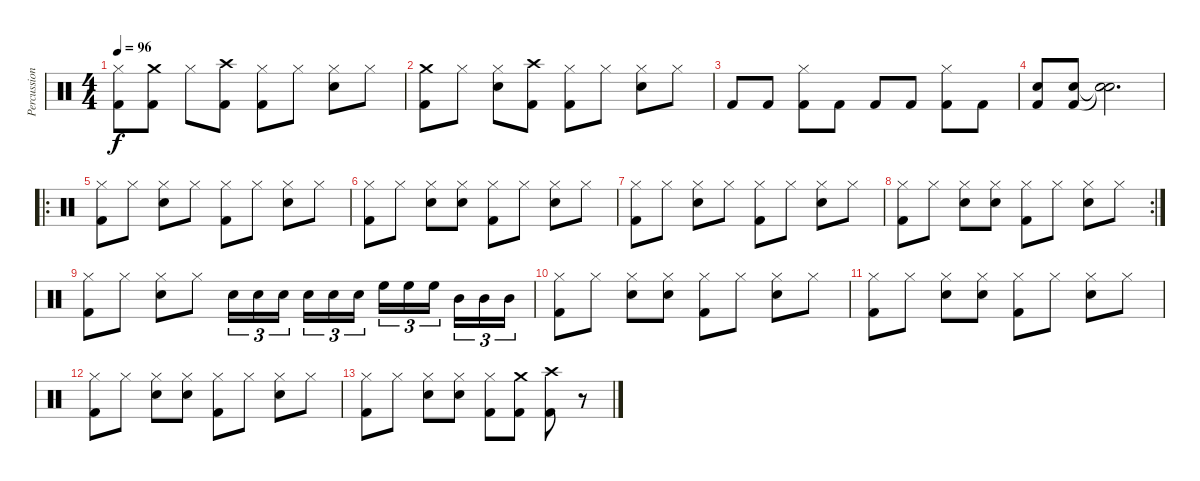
\track ("Percussion" "Percussion") {instrument percussion}
\staff {score}
\articulation defaults
\ts (4 4)
\tempo 96
\clef neutral
\ks c
("Kick (hit) 2" "Hi-Hat (closed)").8{dy f} ("Crash medium (hit)" "Kick (hit) 2").8 "Hi-Hat (closed)".8 ("Crash high (hit)" "Kick (hit) 2").8 ("Hi-Hat (closed)" "Kick (hit) 2").8 "Hi-Hat (closed)".8 ("Hi-Hat (closed)" "Snare (hit) 2").8 "Hi-Hat (closed)".8 |
("Crash medium (hit)" "Kick (hit) 2").8 "Hi-Hat (closed)".8 ("Hi-Hat (closed)" "Snare (hit) 2").8 ("Crash high (hit)" "Kick (hit) 2").8 ("Hi-Hat (closed)" "Kick (hit) 2").8 "Hi-Hat (closed)".8 ("Hi-Hat (closed)" "Snare (hit) 2").8 "Hi-Hat (closed)".8 |
"Kick (hit) 2".8 "Kick (hit) 2".8 ("Hi-Hat (closed)" "Kick (hit) 2").8 "Kick (hit) 2".8 "Kick (hit) 2".8 "Kick (hit) 2".8 ("Hi-Hat (closed)" "Kick (hit) 2").8 "Kick (hit) 2".8 |
("Snare (hit) 2" "Kick (hit) 2").8 ("Kick (hit) 2" "Snare (hit) 2").8 ("Snare (hit)"{t} "Snare (hit)"{t}).2{d} |
\ro
("Hi-Hat (closed)" "Kick (hit) 2").8 "Hi-Hat (closed)".8 ("Hi-Hat (closed)" "Snare (hit) 2").8 "Hi-Hat (closed)".8 ("Hi-Hat (closed)" "Kick (hit) 2").8 "Hi-Hat (closed)".8 ("Hi-Hat (closed)" "Snare (hit) 2").8 "Hi-Hat (closed)".8 |
("Hi-Hat (closed)" "Kick (hit) 2").8 "Hi-Hat (closed)".8 ("Hi-Hat (closed)" "Snare (hit) 2").8 ("Hi-Hat (closed)" "Snare (hit) 2").8 ("Hi-Hat (closed)" "Kick (hit) 2").8 "Hi-Hat (closed)".8 ("Hi-Hat (closed)" "Snare (hit) 2").8 "Hi-Hat (closed)".8 |
("Hi-Hat (closed)" "Kick (hit) 2").8 "Hi-Hat (closed)".8 ("Hi-Hat (closed)" "Snare (hit) 2").8 "Hi-Hat (closed)".8 ("Hi-Hat (closed)" "Kick (hit) 2").8 "Hi-Hat (closed)".8 ("Hi-Hat (closed)" "Snare (hit) 2").8 "Hi-Hat (closed)".8 |
\rc 2
("Hi-Hat (closed)" "Kick (hit) 2").8 "Hi-Hat (closed)".8 ("Hi-Hat (closed)" "Snare (hit) 2").8 ("Hi-Hat (closed)" "Snare (hit) 2").8 ("Hi-Hat (closed)" "Kick (hit) 2").8 "Hi-Hat (closed)".8 ("Hi-Hat (closed)" "Snare (hit) 2").8 "Hi-Hat (closed)".8 |
("Hi-Hat (closed)" "Kick (hit) 2").8 "Hi-Hat (closed)".8 ("Hi-Hat (closed)" "Snare (hit) 2").8 "Hi-Hat (closed)".8 "Snare (hit) 2".16{tu (3 2)} "Snare (hit) 2".16{tu (3 2)} "Snare (hit) 2".16{tu (3 2) beam splitsecondary} "Snare (hit) 2".16{tu (3 2)} "Snare (hit) 2".16{tu (3 2)} "Snare (hit) 2".16{tu (3 2)} "High Floor Tom (hit)".16{tu (3 2)} "High Floor Tom (hit)".16{tu (3 2)} "High Floor Tom (hit)".16{tu (3 2) beam splitsecondary} "Mid Tom (hit)".16{tu (3 2)} "Mid Tom (hit)".16{tu (3 2)} "Mid Tom (hit)".16{tu (3 2)} |
("Hi-Hat (closed)" "Kick (hit) 2").8 "Hi-Hat (closed)".8 ("Hi-Hat (closed)" "Snare (hit) 2").8 ("Hi-Hat (closed)" "Snare (hit) 2").8 ("Hi-Hat (closed)" "Kick (hit) 2").8 "Hi-Hat (closed)".8 ("Hi-Hat (closed)" "Snare (hit) 2").8 "Hi-Hat (closed)".8 |
("Hi-Hat (closed)" "Kick (hit) 2").8 "Hi-Hat (closed)".8 ("Hi-Hat (closed)" "Snare (hit) 2").8 ("Hi-Hat (closed)" "Snare (hit) 2").8 ("Hi-Hat (closed)" "Kick (hit) 2").8 "Hi-Hat (closed)".8 ("Hi-Hat (closed)" "Snare (hit) 2").8 "Hi-Hat (closed)".8 |
("Hi-Hat (closed)" "Kick (hit) 2").8 "Hi-Hat (closed)".8 ("Hi-Hat (closed)" "Snare (hit) 2").8 ("Hi-Hat (closed)" "Snare (hit) 2").8 ("Hi-Hat (closed)" "Kick (hit) 2").8 "Hi-Hat (closed)".8 ("Hi-Hat (closed)" "Snare (hit) 2").8 "Hi-Hat (closed)".8 |
("Hi-Hat (closed)" "Kick (hit) 2").8 "Hi-Hat (closed)".8 ("Hi-Hat (closed)" "Snare (hit) 2").8 ("Hi-Hat (closed)" "Snare (hit) 2").8 ("Hi-Hat (closed)" "Kick (hit) 2").8 ("Crash medium (hit)" "Kick (hit) 2").8 ("Crash high (hit)" "Kick (hit) 2").8 r.8
